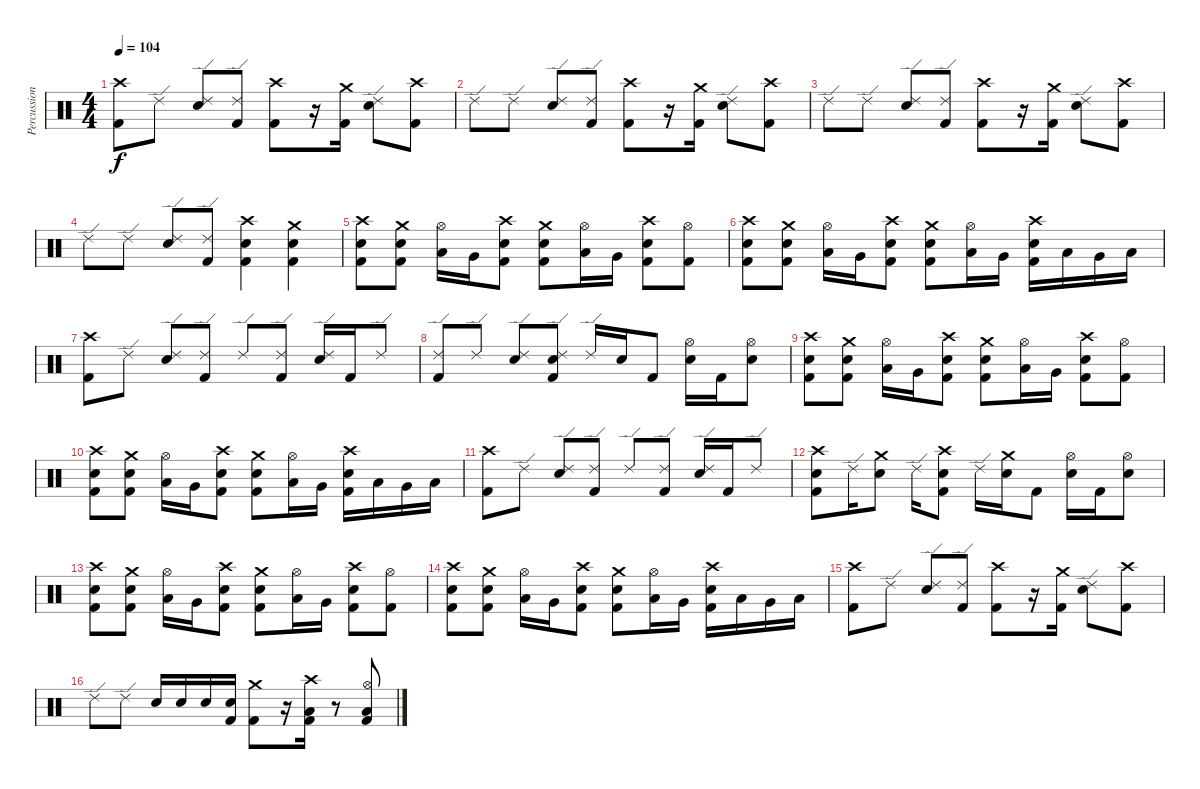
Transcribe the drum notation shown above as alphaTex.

\track ("Percussion" "Percussion") {instrument percussion}
\staff {score}
\articulation defaults
\ts (4 4)
\tempo 104
\clef neutral
\ks c
("Crash high (hit)" "Kick (hit) 2").8{dy f} "Ride (edge) 2".8 ("Ride (edge) 2" "Electric Snare (hit)").8 ("Ride (edge) 2" "Kick (hit) 2").8 ("Crash high (hit)" "Kick (hit) 2").8 r.16 ("Crash medium (hit)" "Kick (hit) 2").16 ("Ride (edge) 2" "Electric Snare (hit)").8 ("Crash high (hit)" "Kick (hit) 2").8 |
"Ride (edge) 2".8 "Ride (edge) 2".8 ("Ride (edge) 2" "Electric Snare (hit)").8 ("Ride (edge) 2" "Kick (hit) 2").8 ("Crash high (hit)" "Kick (hit) 2").8 r.16 ("Crash medium (hit)" "Kick (hit) 2").16 ("Ride (edge) 2" "Electric Snare (hit)").8 ("Crash high (hit)" "Kick (hit) 2").8 |
"Ride (edge) 2".8 "Ride (edge) 2".8 ("Ride (edge) 2" "Electric Snare (hit)").8 ("Ride (edge) 2" "Kick (hit) 2").8 ("Crash high (hit)" "Kick (hit) 2").8 r.16 ("Crash medium (hit)" "Kick (hit) 2").16 ("Ride (edge) 2" "Electric Snare (hit)").8 ("Crash high (hit)" "Kick (hit) 2").8 |
"Ride (edge) 2".8 "Ride (edge) 2".8 ("Ride (edge) 2" "Electric Snare (hit)").8 ("Ride (edge) 2" "Kick (hit) 2").8 ("Crash high (hit)" "Electric Snare (hit)" "Kick (hit) 2").4 ("Crash medium (hit)" "Electric Snare (hit)" "Kick (hit) 2").4 |
("Crash high (hit)" "Electric Snare (hit)" "Kick (hit) 2").8 ("Crash medium (hit)" "Electric Snare (hit)" "Kick (hit) 2").8 ("Hi-Hat (open)" "Low Tom (hit)").16 "Very Low Tom (hit)".16 ("Crash high (hit)" "Electric Snare (hit)" "Kick (hit) 2").8 ("Crash medium (hit)" "Electric Snare (hit)" "Kick (hit) 2").8 ("Hi-Hat (open)" "Low Tom (hit)").16 "Very Low Tom (hit)".16 ("Crash high (hit)" "Electric Snare (hit)" "Kick (hit) 2").8 ("Hi-Hat (open)" "Kick (hit) 2").8 |
("Crash high (hit)" "Electric Snare (hit)" "Kick (hit) 2").8 ("Crash medium (hit)" "Electric Snare (hit)" "Kick (hit) 2").8 ("Hi-Hat (open)" "Low Tom (hit)").16 "Very Low Tom (hit)".16 ("Crash high (hit)" "Electric Snare (hit)" "Kick (hit) 2").8 ("Crash medium (hit)" "Electric Snare (hit)" "Kick (hit) 2").8 ("Hi-Hat (open)" "Low Tom (hit)").16 "Very Low Tom (hit)".16 ("Crash high (hit)" "Electric Snare (hit)" "Kick (hit) 2").16 "Low Tom (hit)".16 "Very Low Tom (hit)".16 "Low Floor Tom (hit)".16 |
("Crash high (hit)" "Kick (hit) 2").8 "Ride (edge) 2".8 ("Ride (edge) 2" "Electric Snare (hit)").8 ("Ride (edge) 2" "Kick (hit) 2").8 "Ride (edge) 2".8 ("Ride (edge) 2" "Kick (hit) 2").8 ("Ride (edge) 2" "Electric Snare (hit)").16 "Kick (hit) 2".16 "Ride (edge) 2".8 |
("Ride (edge) 2" "Kick (hit) 2").8 "Ride (edge) 2".8 ("Ride (edge) 2" "Electric Snare (hit)").8 ("Ride (edge) 2" "Electric Snare (hit)" "Kick (hit) 2").8 "Ride (edge) 2".16 "Electric Snare (hit)".16 "Kick (hit) 2".8 ("Hi-Hat (open)" "Electric Snare (hit)").16 "Kick (hit) 2".16 ("Hi-Hat (open)" "Electric Snare (hit)").8 |
("Crash high (hit)" "Electric Snare (hit)" "Kick (hit) 2").8 ("Crash medium (hit)" "Electric Snare (hit)" "Kick (hit) 2").8 ("Hi-Hat (open)" "Low Tom (hit)").16 "Very Low Tom (hit)".16 ("Crash high (hit)" "Electric Snare (hit)" "Kick (hit) 2").8 ("Crash medium (hit)" "Electric Snare (hit)" "Kick (hit) 2").8 ("Hi-Hat (open)" "Low Tom (hit)").16 "Very Low Tom (hit)".16 ("Crash high (hit)" "Electric Snare (hit)" "Kick (hit) 2").8 ("Hi-Hat (open)" "Kick (hit) 2").8 |
("Crash high (hit)" "Electric Snare (hit)" "Kick (hit) 2").8 ("Crash medium (hit)" "Electric Snare (hit)" "Kick (hit) 2").8 ("Hi-Hat (open)" "Low Tom (hit)").16 "Very Low Tom (hit)".16 ("Crash high (hit)" "Electric Snare (hit)" "Kick (hit) 2").8 ("Crash medium (hit)" "Electric Snare (hit)" "Kick (hit) 2").8 ("Hi-Hat (open)" "Low Tom (hit)").16 "Very Low Tom (hit)".16 ("Crash high (hit)" "Electric Snare (hit)" "Kick (hit) 2").16 "Low Tom (hit)".16 "Very Low Tom (hit)".16 "Low Floor Tom (hit)".16 |
("Crash high (hit)" "Kick (hit) 2").8 "Ride (edge) 2".8 ("Ride (edge) 2" "Electric Snare (hit)").8 ("Ride (edge) 2" "Kick (hit) 2").8 "Ride (edge) 2".8 ("Ride (edge) 2" "Kick (hit) 2").8 ("Ride (edge) 2" "Electric Snare (hit)").16 "Kick (hit) 2".16 "Ride (edge) 2".8 |
("Crash high (hit)" "Electric Snare (hit)" "Kick (hit) 2").8 "Ride (edge) 2".16 ("Crash medium (hit)" "Electric Snare (hit)").8 "Ride (edge) 2".16 ("Crash high (hit)" "Electric Snare (hit)" "Kick (hit) 2").8 "Ride (edge) 2".16 ("Crash medium (hit)" "Electric Snare (hit)").16 "Kick (hit) 2".8 ("Hi-Hat (open)" "Electric Snare (hit)").16 "Kick (hit) 2".16 ("Hi-Hat (open)" "Electric Snare (hit)").8 |
("Crash high (hit)" "Electric Snare (hit)" "Kick (hit) 2").8 ("Crash medium (hit)" "Electric Snare (hit)" "Kick (hit) 2").8 ("Hi-Hat (open)" "Low Tom (hit)").16 "Very Low Tom (hit)".16 ("Crash high (hit)" "Electric Snare (hit)" "Kick (hit) 2").8 ("Crash medium (hit)" "Electric Snare (hit)" "Kick (hit) 2").8 ("Hi-Hat (open)" "Low Tom (hit)").16 "Very Low Tom (hit)".16 ("Crash high (hit)" "Electric Snare (hit)" "Kick (hit) 2").8 ("Hi-Hat (open)" "Kick (hit) 2").8 |
("Crash high (hit)" "Electric Snare (hit)" "Kick (hit) 2").8 ("Crash medium (hit)" "Electric Snare (hit)" "Kick (hit) 2").8 ("Hi-Hat (open)" "Low Tom (hit)").16 "Very Low Tom (hit)".16 ("Crash high (hit)" "Electric Snare (hit)" "Kick (hit) 2").8 ("Crash medium (hit)" "Electric Snare (hit)" "Kick (hit) 2").8 ("Hi-Hat (open)" "Low Tom (hit)").16 "Very Low Tom (hit)".16 ("Crash high (hit)" "Electric Snare (hit)" "Kick (hit) 2").16 "Low Tom (hit)".16 "Very Low Tom (hit)".16 "Low Floor Tom (hit)".16 |
("Crash high (hit)" "Kick (hit) 2").8 "Ride (edge) 2".8 ("Ride (edge) 2" "Electric Snare (hit)").8 ("Ride (edge) 2" "Kick (hit) 2").8 ("Crash high (hit)" "Kick (hit) 2").8 r.16 ("Crash medium (hit)" "Kick (hit) 2").16 ("Ride (edge) 2" "Electric Snare (hit)").8 ("Crash high (hit)" "Kick (hit) 2").8 |
"Ride (edge) 2".8 "Ride (edge) 2".8 "Electric Snare (hit)".16 "Electric Snare (hit)".16 "Electric Snare (hit)".16 ("Electric Snare (hit)" "Kick (hit) 2").16 ("Crash medium (hit)" "Kick (hit) 2").8 r.16 ("Crash high (hit)" "Low Tom (hit)" "Kick (hit) 2").16 r.8 ("Hi-Hat (open)" "Low Floor Tom (hit)" "Kick (hit) 2").8
